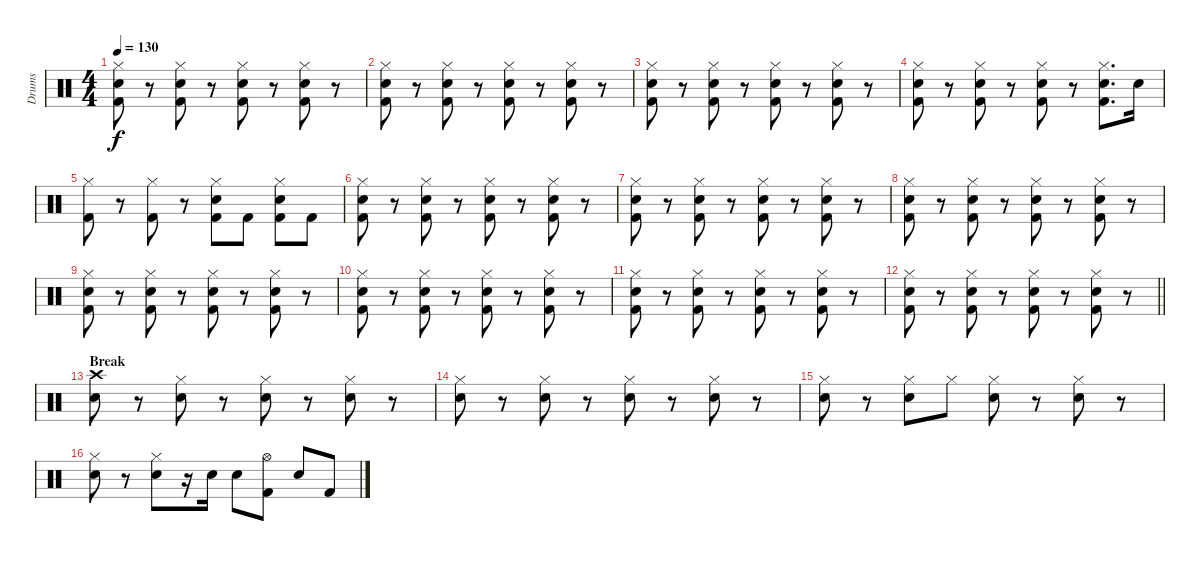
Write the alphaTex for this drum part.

\track ("Drums" "Drums") {instrument percussion}
\staff {score}
\articulation defaults
\ts (4 4)
\tempo 130
\clef neutral
\ks c
("Hi-Hat (closed)" "Snare (hit) 2" "Kick (hit) 2").8{dy f} r.8 ("Hi-Hat (closed)" "Snare (hit) 2" "Kick (hit) 2").8 r.8 ("Hi-Hat (closed)" "Snare (hit) 2" "Kick (hit) 2").8 r.8 ("Hi-Hat (closed)" "Snare (hit) 2" "Kick (hit) 2").8 r.8 |
("Hi-Hat (closed)" "Snare (hit) 2" "Kick (hit) 2").8 r.8 ("Hi-Hat (closed)" "Snare (hit) 2" "Kick (hit) 2").8 r.8 ("Hi-Hat (closed)" "Snare (hit) 2" "Kick (hit) 2").8 r.8 ("Hi-Hat (closed)" "Snare (hit) 2" "Kick (hit) 2").8 r.8 |
("Hi-Hat (closed)" "Snare (hit) 2" "Kick (hit) 2").8 r.8 ("Hi-Hat (closed)" "Snare (hit) 2" "Kick (hit) 2").8 r.8 ("Hi-Hat (closed)" "Snare (hit) 2" "Kick (hit) 2").8 r.8 ("Hi-Hat (closed)" "Snare (hit) 2" "Kick (hit) 2").8 r.8 |
("Hi-Hat (closed)" "Snare (hit) 2" "Kick (hit) 2").8 r.8 ("Hi-Hat (closed)" "Snare (hit) 2" "Kick (hit) 2").8 r.8 ("Hi-Hat (closed)" "Snare (hit) 2" "Kick (hit) 2").8 r.8 ("Hi-Hat (closed)" "Snare (hit) 2" "Kick (hit) 2").8{d} "Snare (hit) 2".16 |
("Hi-Hat (closed)" "Kick (hit) 2").8 r.8 ("Hi-Hat (closed)" "Kick (hit) 2").8 r.8 ("Hi-Hat (closed)" "Snare (hit) 2" "Kick (hit) 2").8 "Kick (hit) 2".8 ("Hi-Hat (closed)" "Snare (hit) 2" "Kick (hit) 2").8 "Kick (hit) 2".8 |
("Hi-Hat (closed)" "Snare (hit) 2" "Kick (hit) 2").8 r.8 ("Hi-Hat (closed)" "Snare (hit) 2" "Kick (hit) 2").8 r.8 ("Hi-Hat (closed)" "Snare (hit) 2" "Kick (hit) 2").8 r.8 ("Hi-Hat (closed)" "Snare (hit) 2" "Kick (hit) 2").8 r.8 |
("Hi-Hat (closed)" "Snare (hit) 2" "Kick (hit) 2").8 r.8 ("Hi-Hat (closed)" "Snare (hit) 2" "Kick (hit) 2").8 r.8 ("Hi-Hat (closed)" "Snare (hit) 2" "Kick (hit) 2").8 r.8 ("Hi-Hat (closed)" "Snare (hit) 2" "Kick (hit) 2").8 r.8 |
("Hi-Hat (closed)" "Snare (hit) 2" "Kick (hit) 2").8 r.8 ("Hi-Hat (closed)" "Snare (hit) 2" "Kick (hit) 2").8 r.8 ("Hi-Hat (closed)" "Snare (hit) 2" "Kick (hit) 2").8 r.8 ("Hi-Hat (closed)" "Snare (hit) 2" "Kick (hit) 2").8 r.8 |
("Hi-Hat (closed)" "Snare (hit) 2" "Kick (hit) 2").8 r.8 ("Hi-Hat (closed)" "Snare (hit) 2" "Kick (hit) 2").8 r.8 ("Hi-Hat (closed)" "Snare (hit) 2" "Kick (hit) 2").8 r.8 ("Hi-Hat (closed)" "Snare (hit) 2" "Kick (hit) 2").8 r.8 |
("Hi-Hat (closed)" "Snare (hit) 2" "Kick (hit) 2").8 r.8 ("Hi-Hat (closed)" "Snare (hit) 2" "Kick (hit) 2").8 r.8 ("Hi-Hat (closed)" "Snare (hit) 2" "Kick (hit) 2").8 r.8 ("Hi-Hat (closed)" "Snare (hit) 2" "Kick (hit) 2").8 r.8 |
("Hi-Hat (closed)" "Snare (hit) 2" "Kick (hit) 2").8 r.8 ("Hi-Hat (closed)" "Snare (hit) 2" "Kick (hit) 2").8 r.8 ("Hi-Hat (closed)" "Snare (hit) 2" "Kick (hit) 2").8 r.8 ("Hi-Hat (closed)" "Snare (hit) 2" "Kick (hit) 2").8 r.8 |
\barLineRight lightlight
("Hi-Hat (closed)" "Snare (hit) 2" "Kick (hit) 2").8 r.8 ("Hi-Hat (closed)" "Snare (hit) 2" "Kick (hit) 2").8 r.8 ("Hi-Hat (closed)" "Snare (hit) 2" "Kick (hit) 2").8 r.8 ("Hi-Hat (closed)" "Snare (hit) 2" "Kick (hit) 2").8 r.8 |
\section ("" "Break")
("Crash high (hit)" "Snare (hit) 2").8 r.8 ("Hi-Hat (closed)" "Snare (hit) 2").8 r.8 ("Hi-Hat (closed)" "Snare (hit) 2").8 r.8 ("Hi-Hat (closed)" "Snare (hit) 2").8 r.8 |
("Hi-Hat (closed)" "Snare (hit) 2").8 r.8 ("Hi-Hat (closed)" "Snare (hit) 2").8 r.8 ("Hi-Hat (closed)" "Snare (hit) 2").8 r.8 ("Hi-Hat (closed)" "Snare (hit) 2").8 r.8 |
("Hi-Hat (closed)" "Snare (hit) 2").8 r.8 ("Hi-Hat (closed)" "Snare (hit) 2").8 "Hi-Hat (closed)".8 ("Hi-Hat (closed)" "Snare (hit) 2").8 r.8 ("Hi-Hat (closed)" "Snare (hit) 2").8 r.8 |
("Hi-Hat (closed)" "Snare (hit) 2").8 r.8 ("Hi-Hat (closed)" "Snare (hit) 2").8 r.16 "Snare (hit) 2".16 "Snare (hit) 2".8 ("Hi-Hat (open)" "Kick (hit) 2").8 "Snare (hit) 2".8 "Kick (hit) 2".8
